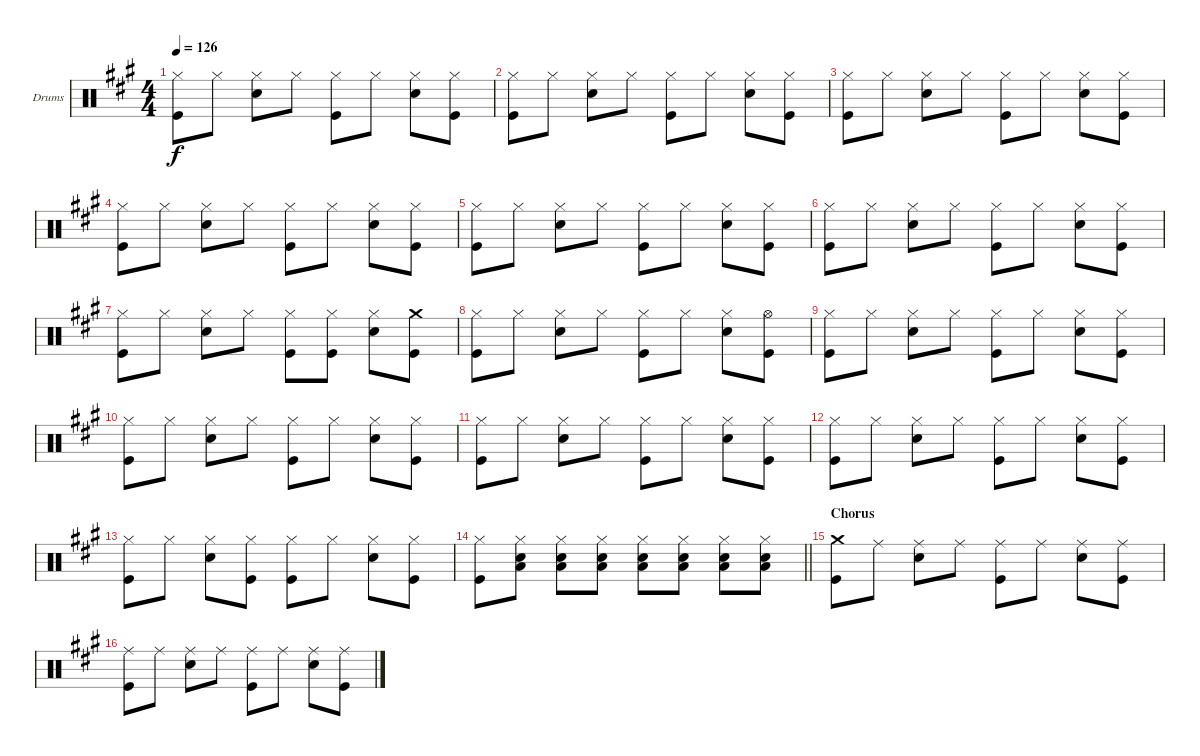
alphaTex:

\bracketExtendMode groupsimilarinstruments
\firstSystemTrackNameOrientation horizontal
\otherSystemsTrackNameOrientation horizontal
\track ("Drumkit" "Drums") {instrument percussion}
\staff {score}
\articulation defaults
\ts (4 4)
\tempo 126
\clef neutral
\ks a
("Hi-Hat (closed)" "Kick (hit)").8{dy f} "Hi-Hat (closed)".8 ("Hi-Hat (closed)" "Snare (hit) 2").8 "Hi-Hat (closed)".8 ("Hi-Hat (closed)" "Kick (hit)").8 "Hi-Hat (closed)".8 ("Hi-Hat (closed)" "Snare (hit) 2").8 ("Hi-Hat (closed)" "Kick (hit)").8 |
("Hi-Hat (closed)" "Kick (hit)").8 "Hi-Hat (closed)".8 ("Hi-Hat (closed)" "Snare (hit) 2").8 "Hi-Hat (closed)".8 ("Hi-Hat (closed)" "Kick (hit)").8 "Hi-Hat (closed)".8 ("Hi-Hat (closed)" "Snare (hit) 2").8 ("Hi-Hat (closed)" "Kick (hit)").8 |
("Hi-Hat (closed)" "Kick (hit)").8 "Hi-Hat (closed)".8 ("Hi-Hat (closed)" "Snare (hit) 2").8 "Hi-Hat (closed)".8 ("Hi-Hat (closed)" "Kick (hit)").8 "Hi-Hat (closed)".8 ("Hi-Hat (closed)" "Snare (hit) 2").8 ("Hi-Hat (closed)" "Kick (hit)").8 |
("Hi-Hat (closed)" "Kick (hit)").8 "Hi-Hat (closed)".8 ("Hi-Hat (closed)" "Snare (hit) 2").8 "Hi-Hat (closed)".8 ("Hi-Hat (closed)" "Kick (hit)").8 "Hi-Hat (closed)".8 ("Hi-Hat (closed)" "Snare (hit) 2").8 ("Hi-Hat (closed)" "Kick (hit)").8 |
("Hi-Hat (closed)" "Kick (hit)").8 "Hi-Hat (closed)".8 ("Hi-Hat (closed)" "Snare (hit) 2").8 "Hi-Hat (closed)".8 ("Hi-Hat (closed)" "Kick (hit)").8 "Hi-Hat (closed)".8 ("Hi-Hat (closed)" "Snare (hit) 2").8 ("Hi-Hat (closed)" "Kick (hit)").8 |
("Hi-Hat (closed)" "Kick (hit)").8 "Hi-Hat (closed)".8 ("Hi-Hat (closed)" "Snare (hit) 2").8 "Hi-Hat (closed)".8 ("Hi-Hat (closed)" "Kick (hit)").8 "Hi-Hat (closed)".8 ("Hi-Hat (closed)" "Snare (hit) 2").8 ("Hi-Hat (closed)" "Kick (hit)").8 |
("Hi-Hat (closed)" "Kick (hit)").8 "Hi-Hat (closed)".8 ("Hi-Hat (closed)" "Snare (hit) 2").8 "Hi-Hat (closed)".8 ("Hi-Hat (closed)" "Kick (hit)").8 ("Hi-Hat (closed)" "Kick (hit)").8 ("Hi-Hat (closed)" "Snare (hit) 2").8 ("Crash medium (hit)" "Kick (hit)").8 |
("Hi-Hat (closed)" "Kick (hit)").8 "Hi-Hat (closed)".8 ("Hi-Hat (closed)" "Snare (hit) 2").8 "Hi-Hat (closed)".8 ("Hi-Hat (closed)" "Kick (hit)").8 "Hi-Hat (closed)".8 ("Hi-Hat (closed)" "Snare (hit) 2").8 ("Hi-Hat (open)" "Kick (hit)").8 |
("Hi-Hat (closed)" "Kick (hit)").8 "Hi-Hat (closed)".8 ("Hi-Hat (closed)" "Snare (hit) 2").8 "Hi-Hat (closed)".8 ("Hi-Hat (closed)" "Kick (hit)").8 "Hi-Hat (closed)".8 ("Hi-Hat (closed)" "Snare (hit) 2").8 ("Hi-Hat (closed)" "Kick (hit)").8 |
("Hi-Hat (closed)" "Kick (hit)").8 "Hi-Hat (closed)".8 ("Hi-Hat (closed)" "Snare (hit) 2").8 "Hi-Hat (closed)".8 ("Hi-Hat (closed)" "Kick (hit)").8 "Hi-Hat (closed)".8 ("Hi-Hat (closed)" "Snare (hit) 2").8 ("Hi-Hat (closed)" "Kick (hit)").8 |
("Hi-Hat (closed)" "Kick (hit)").8 "Hi-Hat (closed)".8 ("Hi-Hat (closed)" "Snare (hit) 2").8 "Hi-Hat (closed)".8 ("Hi-Hat (closed)" "Kick (hit)").8 "Hi-Hat (closed)".8 ("Hi-Hat (closed)" "Snare (hit) 2").8 ("Hi-Hat (closed)" "Kick (hit)").8 |
("Hi-Hat (closed)" "Kick (hit)").8 "Hi-Hat (closed)".8 ("Hi-Hat (closed)" "Snare (hit) 2").8 "Hi-Hat (closed)".8 ("Hi-Hat (closed)" "Kick (hit)").8 "Hi-Hat (closed)".8 ("Hi-Hat (closed)" "Snare (hit) 2").8 ("Hi-Hat (closed)" "Kick (hit)").8 |
("Hi-Hat (closed)" "Kick (hit)").8 "Hi-Hat (closed)".8 ("Hi-Hat (closed)" "Snare (hit) 2").8 ("Hi-Hat (closed)" "Kick (hit)").8 ("Hi-Hat (closed)" "Kick (hit)").8 "Hi-Hat (closed)".8 ("Hi-Hat (closed)" "Snare (hit) 2").8 ("Hi-Hat (closed)" "Kick (hit)").8 |
\barLineRight lightlight
("Hi-Hat (closed)" "Kick (hit)").8 ("Hi-Hat (closed)" "Low Tom (hit)" "Snare (hit) 2").8 ("Hi-Hat (closed)" "Low Tom (hit)" "Snare (hit) 2").8 ("Hi-Hat (closed)" "Low Tom (hit)" "Snare (hit) 2").8 ("Hi-Hat (closed)" "Low Tom (hit)" "Snare (hit) 2").8 ("Hi-Hat (closed)" "Low Tom (hit)" "Snare (hit) 2").8 ("Hi-Hat (closed)" "Low Tom (hit)" "Snare (hit) 2").8 ("Hi-Hat (closed)" "Low Tom (hit)" "Snare (hit) 2").8 |
\section ("" "Chorus")
("Crash medium (hit)" "Kick (hit)").8 "Ride (middle)".8 ("Ride (middle)" "Snare (hit) 2").8 "Ride (middle)".8 ("Ride (middle)" "Kick (hit)").8 "Ride (middle)".8 ("Ride (middle)" "Snare (hit) 2").8 ("Ride (middle)" "Kick (hit)").8 |
("Ride (middle)" "Kick (hit)").8 "Ride (middle)".8 ("Ride (middle)" "Snare (hit) 2").8 "Ride (middle)".8 ("Ride (middle)" "Kick (hit)").8 "Ride (middle)".8 ("Ride (middle)" "Snare (hit) 2").8 ("Ride (middle)" "Kick (hit)").8
